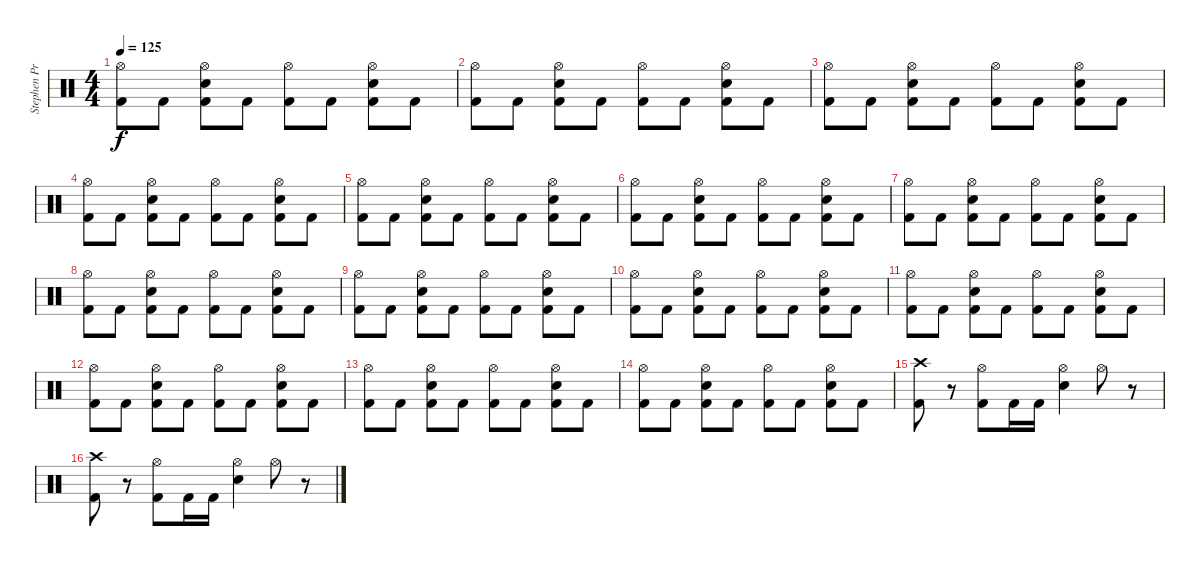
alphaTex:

\track ("Stephen Priestly" "Stephen Pr") {instrument percussion}
\staff {score}
\articulation defaults
\ts (4 4)
\tempo 125
\clef neutral
\ks c
("Hi-Hat (open)" "Kick (hit) 2").8{dy f} "Kick (hit) 2".8 ("Hi-Hat (open)" "Snare (hit) 2" "Kick (hit) 2").8 "Kick (hit) 2".8 ("Hi-Hat (open)" "Kick (hit) 2").8 "Kick (hit) 2".8 ("Hi-Hat (open)" "Snare (hit) 2" "Kick (hit) 2").8 "Kick (hit) 2".8 |
("Hi-Hat (open)" "Kick (hit) 2").8 "Kick (hit) 2".8 ("Hi-Hat (open)" "Snare (hit) 2" "Kick (hit) 2").8 "Kick (hit) 2".8 ("Hi-Hat (open)" "Kick (hit) 2").8 "Kick (hit) 2".8 ("Hi-Hat (open)" "Snare (hit) 2" "Kick (hit) 2").8 "Kick (hit) 2".8 |
("Hi-Hat (open)" "Kick (hit) 2").8 "Kick (hit) 2".8 ("Hi-Hat (open)" "Snare (hit) 2" "Kick (hit) 2").8 "Kick (hit) 2".8 ("Hi-Hat (open)" "Kick (hit) 2").8 "Kick (hit) 2".8 ("Hi-Hat (open)" "Snare (hit) 2" "Kick (hit) 2").8 "Kick (hit) 2".8 |
("Hi-Hat (open)" "Kick (hit) 2").8 "Kick (hit) 2".8 ("Hi-Hat (open)" "Snare (hit) 2" "Kick (hit) 2").8 "Kick (hit) 2".8 ("Hi-Hat (open)" "Kick (hit) 2").8 "Kick (hit) 2".8 ("Hi-Hat (open)" "Snare (hit) 2" "Kick (hit) 2").8 "Kick (hit) 2".8 |
("Hi-Hat (open)" "Kick (hit) 2").8 "Kick (hit) 2".8 ("Hi-Hat (open)" "Snare (hit) 2" "Kick (hit) 2").8 "Kick (hit) 2".8 ("Hi-Hat (open)" "Kick (hit) 2").8 "Kick (hit) 2".8 ("Hi-Hat (open)" "Snare (hit) 2" "Kick (hit) 2").8 "Kick (hit) 2".8 |
("Hi-Hat (open)" "Kick (hit) 2").8 "Kick (hit) 2".8 ("Hi-Hat (open)" "Snare (hit) 2" "Kick (hit) 2").8 "Kick (hit) 2".8 ("Hi-Hat (open)" "Kick (hit) 2").8 "Kick (hit) 2".8 ("Hi-Hat (open)" "Snare (hit) 2" "Kick (hit) 2").8 "Kick (hit) 2".8 |
("Hi-Hat (open)" "Kick (hit) 2").8 "Kick (hit) 2".8 ("Hi-Hat (open)" "Snare (hit) 2" "Kick (hit) 2").8 "Kick (hit) 2".8 ("Hi-Hat (open)" "Kick (hit) 2").8 "Kick (hit) 2".8 ("Hi-Hat (open)" "Snare (hit) 2" "Kick (hit) 2").8 "Kick (hit) 2".8 |
("Hi-Hat (open)" "Kick (hit) 2").8 "Kick (hit) 2".8 ("Hi-Hat (open)" "Snare (hit) 2" "Kick (hit) 2").8 "Kick (hit) 2".8 ("Hi-Hat (open)" "Kick (hit) 2").8 "Kick (hit) 2".8 ("Hi-Hat (open)" "Snare (hit) 2" "Kick (hit) 2").8 "Kick (hit) 2".8 |
("Hi-Hat (open)" "Kick (hit) 2").8 "Kick (hit) 2".8 ("Hi-Hat (open)" "Snare (hit) 2" "Kick (hit) 2").8 "Kick (hit) 2".8 ("Hi-Hat (open)" "Kick (hit) 2").8 "Kick (hit) 2".8 ("Hi-Hat (open)" "Snare (hit) 2" "Kick (hit) 2").8 "Kick (hit) 2".8 |
("Hi-Hat (open)" "Kick (hit) 2").8 "Kick (hit) 2".8 ("Hi-Hat (open)" "Snare (hit) 2" "Kick (hit) 2").8 "Kick (hit) 2".8 ("Hi-Hat (open)" "Kick (hit) 2").8 "Kick (hit) 2".8 ("Hi-Hat (open)" "Snare (hit) 2" "Kick (hit) 2").8 "Kick (hit) 2".8 |
("Hi-Hat (open)" "Kick (hit) 2").8 "Kick (hit) 2".8 ("Hi-Hat (open)" "Snare (hit) 2" "Kick (hit) 2").8 "Kick (hit) 2".8 ("Hi-Hat (open)" "Kick (hit) 2").8 "Kick (hit) 2".8 ("Hi-Hat (open)" "Snare (hit) 2" "Kick (hit) 2").8 "Kick (hit) 2".8 |
("Hi-Hat (open)" "Kick (hit) 2").8 "Kick (hit) 2".8 ("Hi-Hat (open)" "Snare (hit) 2" "Kick (hit) 2").8 "Kick (hit) 2".8 ("Hi-Hat (open)" "Kick (hit) 2").8 "Kick (hit) 2".8 ("Hi-Hat (open)" "Snare (hit) 2" "Kick (hit) 2").8 "Kick (hit) 2".8 |
("Hi-Hat (open)" "Kick (hit) 2").8 "Kick (hit) 2".8 ("Hi-Hat (open)" "Snare (hit) 2" "Kick (hit) 2").8 "Kick (hit) 2".8 ("Hi-Hat (open)" "Kick (hit) 2").8 "Kick (hit) 2".8 ("Hi-Hat (open)" "Snare (hit) 2" "Kick (hit) 2").8 "Kick (hit) 2".8 |
("Hi-Hat (open)" "Kick (hit) 2").8 "Kick (hit) 2".8 ("Hi-Hat (open)" "Snare (hit) 2" "Kick (hit) 2").8 "Kick (hit) 2".8 ("Hi-Hat (open)" "Kick (hit) 2").8 "Kick (hit) 2".8 ("Hi-Hat (open)" "Snare (hit) 2" "Kick (hit) 2").8 "Kick (hit) 2".8 |
("Crash high (hit)" "Kick (hit) 2").8 r.8 ("Hi-Hat (open)" "Kick (hit) 2").8 "Kick (hit) 2".16 "Kick (hit) 2".16 ("Hi-Hat (open)" "Snare (hit) 2").4 "Hi-Hat (open)".8 r.8 |
("Crash high (hit)" "Kick (hit) 2").8 r.8 ("Hi-Hat (open)" "Kick (hit) 2").8 "Kick (hit) 2".16 "Kick (hit) 2".16 ("Hi-Hat (open)" "Snare (hit) 2").4 "Hi-Hat (open)".8 r.8
